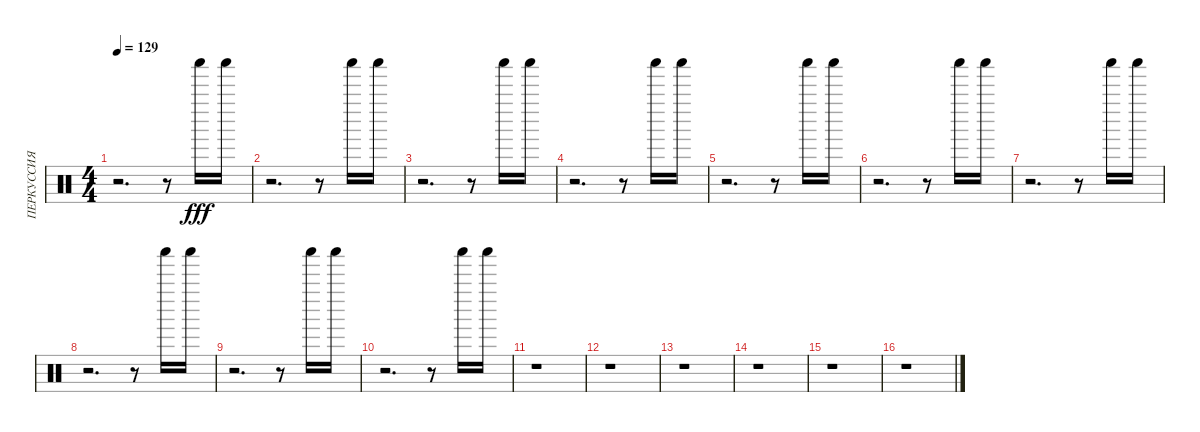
\track ("ПЕРКУССИЯ 2" "ПЕРКУССИЯ ") {instrument percussion}
\staff {score}
\articulation defaults
\ts (4 4)
\tempo 129
\clef neutral
\ks c
r.2{d dy fff} r.8 "Shaker (hit)".16 "Shaker (hit)".16 |
r.2{d} r.8 "Shaker (hit)".16 "Shaker (hit)".16 |
r.2{d} r.8 "Shaker (hit)".16 "Shaker (hit)".16 |
r.2{d} r.8 "Shaker (hit)".16 "Shaker (hit)".16 |
r.2{d} r.8 "Shaker (hit)".16 "Shaker (hit)".16 |
r.2{d} r.8 "Shaker (hit)".16 "Shaker (hit)".16 |
r.2{d} r.8 "Shaker (hit)".16 "Shaker (hit)".16 |
r.2{d} r.8 "Shaker (hit)".16 "Shaker (hit)".16 |
r.2{d} r.8 "Shaker (hit)".16 "Shaker (hit)".16 |
r.2{d} r.8 "Shaker (hit)".16 "Shaker (hit)".16 |
r.1 |
r.1 |
r.1 |
r.1 |
r.1 |
r.1
